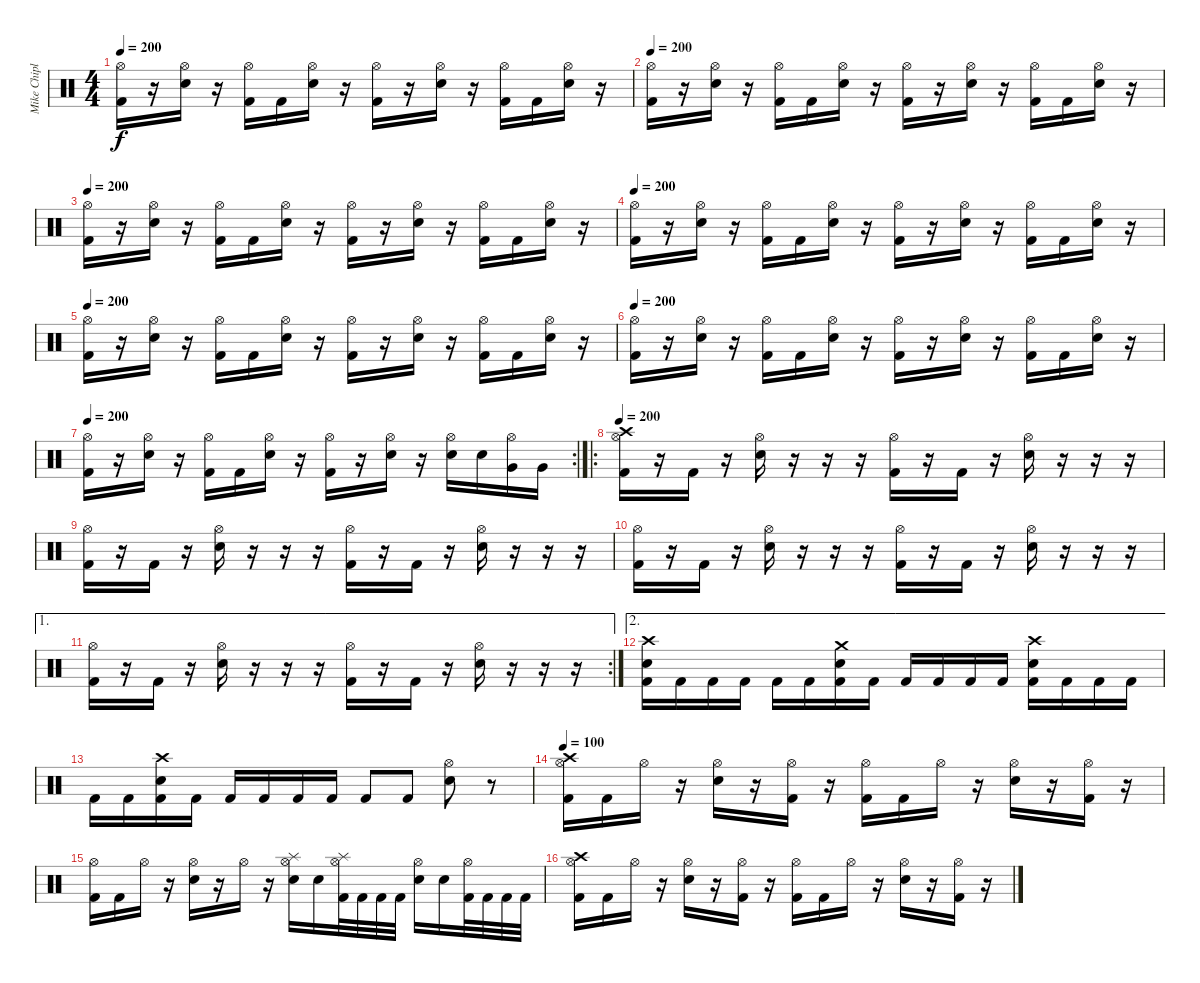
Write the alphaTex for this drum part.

\track ("Mike Chiplin" "Mike Chipl") {instrument percussion}
\staff {score}
\articulation defaults
\ts (4 4)
\tempo 200
\clef neutral
\ks c
("Hi-Hat (open)" "Kick (hit) 2").16{dy f} r.16 ("Hi-Hat (open)" "Electric Snare (hit)").16 r.16 ("Hi-Hat (open)" "Kick (hit) 2").16 "Kick (hit) 2".16 ("Hi-Hat (open)" "Electric Snare (hit)").16 r.16 ("Hi-Hat (open)" "Kick (hit) 2").16 r.16 ("Hi-Hat (open)" "Electric Snare (hit)").16 r.16 ("Hi-Hat (open)" "Kick (hit) 2").16 "Kick (hit) 2".16 ("Hi-Hat (open)" "Electric Snare (hit)").16 r.16 |
\tempo 200
("Hi-Hat (open)" "Kick (hit) 2").16 r.16 ("Hi-Hat (open)" "Electric Snare (hit)").16 r.16 ("Hi-Hat (open)" "Kick (hit) 2").16 "Kick (hit) 2".16 ("Hi-Hat (open)" "Electric Snare (hit)").16 r.16 ("Hi-Hat (open)" "Kick (hit) 2").16 r.16 ("Hi-Hat (open)" "Electric Snare (hit)").16 r.16 ("Hi-Hat (open)" "Kick (hit) 2").16 "Kick (hit) 2".16 ("Hi-Hat (open)" "Electric Snare (hit)").16 r.16 |
\tempo 200
("Hi-Hat (open)" "Kick (hit) 2").16 r.16 ("Hi-Hat (open)" "Electric Snare (hit)").16 r.16 ("Hi-Hat (open)" "Kick (hit) 2").16 "Kick (hit) 2".16 ("Hi-Hat (open)" "Electric Snare (hit)").16 r.16 ("Hi-Hat (open)" "Kick (hit) 2").16 r.16 ("Hi-Hat (open)" "Electric Snare (hit)").16 r.16 ("Hi-Hat (open)" "Kick (hit) 2").16 "Kick (hit) 2".16 ("Hi-Hat (open)" "Electric Snare (hit)").16 r.16 |
\tempo 200
("Hi-Hat (open)" "Kick (hit) 2").16 r.16 ("Hi-Hat (open)" "Electric Snare (hit)").16 r.16 ("Hi-Hat (open)" "Kick (hit) 2").16 "Kick (hit) 2".16 ("Hi-Hat (open)" "Electric Snare (hit)").16 r.16 ("Hi-Hat (open)" "Kick (hit) 2").16 r.16 ("Hi-Hat (open)" "Electric Snare (hit)").16 r.16 ("Hi-Hat (open)" "Kick (hit) 2").16 "Kick (hit) 2".16 ("Hi-Hat (open)" "Electric Snare (hit)").16 r.16 |
\tempo 200
("Hi-Hat (open)" "Kick (hit) 2").16 r.16 ("Hi-Hat (open)" "Electric Snare (hit)").16 r.16 ("Hi-Hat (open)" "Kick (hit) 2").16 "Kick (hit) 2".16 ("Hi-Hat (open)" "Electric Snare (hit)").16 r.16 ("Hi-Hat (open)" "Kick (hit) 2").16 r.16 ("Hi-Hat (open)" "Electric Snare (hit)").16 r.16 ("Hi-Hat (open)" "Kick (hit) 2").16 "Kick (hit) 2".16 ("Hi-Hat (open)" "Electric Snare (hit)").16 r.16 |
\tempo 200
("Hi-Hat (open)" "Kick (hit) 2").16 r.16 ("Hi-Hat (open)" "Electric Snare (hit)").16 r.16 ("Hi-Hat (open)" "Kick (hit) 2").16 "Kick (hit) 2".16 ("Hi-Hat (open)" "Electric Snare (hit)").16 r.16 ("Hi-Hat (open)" "Kick (hit) 2").16 r.16 ("Hi-Hat (open)" "Electric Snare (hit)").16 r.16 ("Hi-Hat (open)" "Kick (hit) 2").16 "Kick (hit) 2".16 ("Hi-Hat (open)" "Electric Snare (hit)").16 r.16 |
\rc 2
\tempo 200
("Hi-Hat (open)" "Kick (hit) 2").16 r.16 ("Hi-Hat (open)" "Electric Snare (hit)").16 r.16 ("Hi-Hat (open)" "Kick (hit) 2").16 "Kick (hit) 2".16 ("Hi-Hat (open)" "Electric Snare (hit)").16 r.16 ("Hi-Hat (open)" "Kick (hit) 2").16 r.16 ("Hi-Hat (open)" "Electric Snare (hit)").16 r.16 ("Hi-Hat (open)" "Electric Snare (hit)").16 "Electric Snare (hit)".16 ("Hi-Hat (open)" "Very Low Tom (hit)").16 "Very Low Tom (hit)".16 |
\ro
\tempo 200
("Hi-Hat (open)" "Kick (hit) 2" "Crash high (hit)").16 r.16 "Kick (hit) 2".16 r.16 ("Hi-Hat (open)" "Electric Snare (hit)").16 r.16 r.16 r.16 ("Hi-Hat (open)" "Kick (hit) 2").16 r.16 "Kick (hit) 2".16 r.16 ("Hi-Hat (open)" "Electric Snare (hit)").16 r.16 r.16 r.16 |
("Hi-Hat (open)" "Kick (hit) 2").16 r.16 "Kick (hit) 2".16 r.16 ("Hi-Hat (open)" "Electric Snare (hit)").16 r.16 r.16 r.16 ("Hi-Hat (open)" "Kick (hit) 2").16 r.16 "Kick (hit) 2".16 r.16 ("Hi-Hat (open)" "Electric Snare (hit)").16 r.16 r.16 r.16 |
("Hi-Hat (open)" "Kick (hit) 2").16 r.16 "Kick (hit) 2".16 r.16 ("Hi-Hat (open)" "Electric Snare (hit)").16 r.16 r.16 r.16 ("Hi-Hat (open)" "Kick (hit) 2").16 r.16 "Kick (hit) 2".16 r.16 ("Hi-Hat (open)" "Electric Snare (hit)").16 r.16 r.16 r.16 |
\ae 1
\rc 2
("Hi-Hat (open)" "Kick (hit) 2").16 r.16 "Kick (hit) 2".16 r.16 ("Hi-Hat (open)" "Electric Snare (hit)").16 r.16 r.16 r.16 ("Hi-Hat (open)" "Kick (hit) 2").16 r.16 "Kick (hit) 2".16 r.16 ("Hi-Hat (open)" "Electric Snare (hit)").16 r.16 r.16 r.16 |
\ae 2
("Electric Snare (hit)" "Kick (hit) 2" "Crash high (hit)").16 "Kick (hit) 2".16 "Kick (hit) 2".16 "Kick (hit) 2".16 "Kick (hit) 2".16 "Kick (hit) 2".16 ("Electric Snare (hit)" "Kick (hit) 2" "Crash medium (hit)").16 "Kick (hit) 2".16 "Kick (hit) 2".16 "Kick (hit) 2".16 "Kick (hit) 2".16 "Kick (hit) 2".16 ("Electric Snare (hit)" "Kick (hit) 2" "Crash high (hit)").16 "Kick (hit) 2".16 "Kick (hit) 2".16 "Kick (hit) 2".16 |
"Kick (hit) 2".16 "Kick (hit) 2".16 ("Electric Snare (hit)" "Kick (hit) 2" "Crash high (hit)").16 "Kick (hit) 2".16 "Kick (hit) 2".16 "Kick (hit) 2".16 "Kick (hit) 2".16 "Kick (hit) 2".16 "Kick (hit) 2".8 "Kick (hit) 2".8 ("Electric Snare (hit)" "Hi-Hat (open)").8 r.8 |
\tempo 100
("Hi-Hat (open)" "Kick (hit) 2" "Crash high (hit)").16 "Kick (hit) 2".16 "Hi-Hat (open)".16 r.16 ("Hi-Hat (open)" "Electric Snare (hit)").16 r.16 ("Hi-Hat (open)" "Kick (hit) 2").16 r.16 ("Hi-Hat (open)" "Kick (hit) 2").16 "Kick (hit) 2".16 "Hi-Hat (open)".16 r.16 ("Hi-Hat (open)" "Electric Snare (hit)").16 r.16 ("Hi-Hat (open)" "Kick (hit) 2").16 r.16 |
("Hi-Hat (open)" "Kick (hit) 2").16 "Kick (hit) 2".16 "Hi-Hat (open)".16 r.16 ("Hi-Hat (open)" "Electric Snare (hit)").16 r.16 "Hi-Hat (open)".16 r.16 ("Hi-Hat (open)" "Electric Snare (hit)" "Splash (hit)").16 "Electric Snare (hit)".16 ("Hi-Hat (open)" "Kick (hit) 2" "Splash (hit)").32 "Kick (hit) 2".32 "Kick (hit) 2".32 "Kick (hit) 2".32 ("Hi-Hat (open)" "Electric Snare (hit)").16 "Electric Snare (hit)".16 ("Kick (hit) 2" "Hi-Hat (open)").32 "Kick (hit) 2".32 "Kick (hit) 2".32 "Kick (hit) 2".32 |
("Hi-Hat (open)" "Kick (hit) 2" "Crash high (hit)").16 "Kick (hit) 2".16 "Hi-Hat (open)".16 r.16 ("Hi-Hat (open)" "Electric Snare (hit)").16 r.16 ("Hi-Hat (open)" "Kick (hit) 2").16 r.16 ("Hi-Hat (open)" "Kick (hit) 2").16 "Kick (hit) 2".16 "Hi-Hat (open)".16 r.16 ("Hi-Hat (open)" "Electric Snare (hit)").16 r.16 ("Hi-Hat (open)" "Kick (hit) 2").16 r.16
